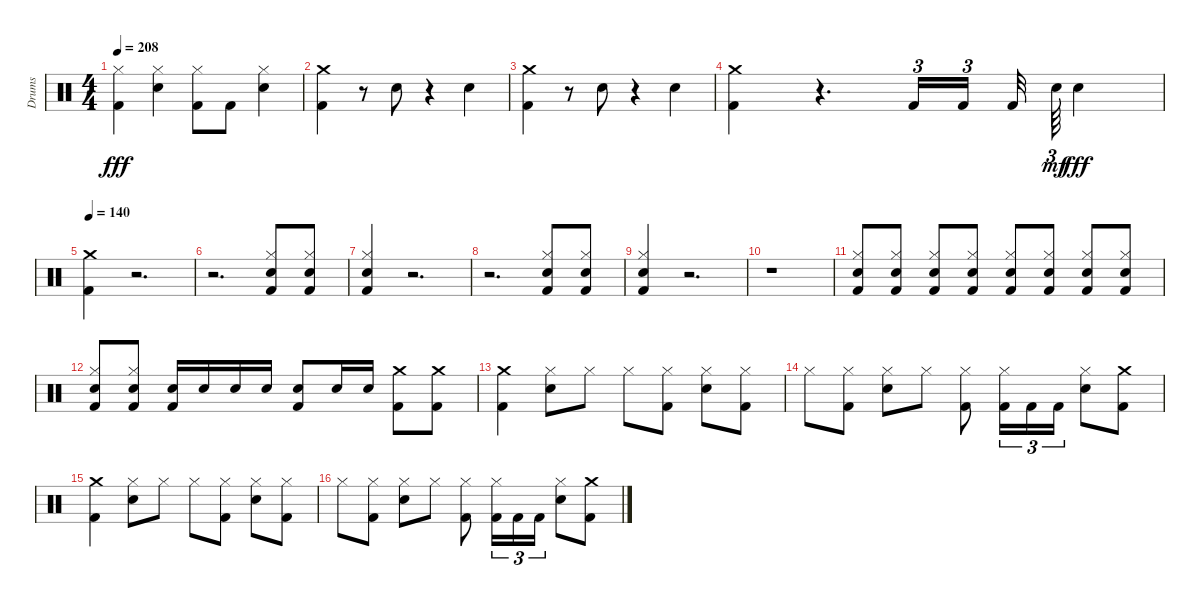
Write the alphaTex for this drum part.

\track ("Drums" "Drums") {instrument percussion}
\staff {score}
\articulation defaults
\ts (4 4)
\tempo 208
\clef neutral
\ks c
("Kick (hit) 2" "Hi-Hat (closed)").4{dy fff} ("Snare (hit) 2" "Hi-Hat (closed)").4 ("Kick (hit) 2" "Hi-Hat (closed)").8 "Kick (hit) 2".8 ("Snare (hit) 2" "Hi-Hat (closed)").4 |
("Kick (hit) 2" "Crash medium (hit)").4 r.8 "Snare (hit) 2".8 r.4 "Snare (hit) 2".4 |
("Kick (hit) 2" "Crash medium (hit)").4 r.8 "Snare (hit) 2".8 r.4 "Snare (hit) 2".4 |
("Kick (hit) 2" "Crash medium (hit)").4 r.4{d} "Kick (hit) 2".16{tu (3 2)} "Kick (hit) 2".16{tu (3 2)} "Kick (hit) 2".32 "Snare (hit) 2".64{tu (3 2) dy mf} "Snare (hit) 2".4{dy fff} |
\tempo 140
("Kick (hit) 2" "Crash medium (hit)").4 r.2{d} |
r.2{d} ("Kick (hit) 2" "Snare (hit) 2" "Hi-Hat (closed)").8 ("Hi-Hat (closed)" "Snare (hit) 2" "Kick (hit) 2").8 |
("Kick (hit) 2" "Snare (hit) 2" "Hi-Hat (closed)").4 r.2{d} |
r.2{d} ("Kick (hit) 2" "Snare (hit) 2" "Hi-Hat (closed)").8 ("Hi-Hat (closed)" "Snare (hit) 2" "Kick (hit) 2").8 |
("Kick (hit) 2" "Snare (hit) 2" "Hi-Hat (closed)").4 r.2{d} |
r.1 |
("Snare (hit) 2" "Hi-Hat (closed)" "Kick (hit) 2").8 ("Hi-Hat (closed)" "Snare (hit) 2" "Kick (hit) 2").8 ("Snare (hit) 2" "Hi-Hat (closed)" "Kick (hit) 2").8 ("Hi-Hat (closed)" "Snare (hit) 2" "Kick (hit) 2").8 ("Snare (hit) 2" "Hi-Hat (closed)" "Kick (hit) 2").8 ("Hi-Hat (closed)" "Snare (hit) 2" "Kick (hit) 2").8 ("Snare (hit) 2" "Hi-Hat (closed)" "Kick (hit) 2").8 ("Hi-Hat (closed)" "Snare (hit) 2" "Kick (hit) 2").8 |
("Snare (hit) 2" "Hi-Hat (closed)" "Kick (hit) 2").8 ("Hi-Hat (closed)" "Snare (hit) 2" "Kick (hit) 2").8 ("Kick (hit) 2" "Snare (hit) 2").16 "Snare (hit) 2".16 "Snare (hit) 2".16 "Snare (hit) 2".16 ("Kick (hit) 2" "Snare (hit) 2").8 "Snare (hit) 2".16 "Snare (hit) 2".16 ("Crash medium (hit)" "Kick (hit) 2").8 ("Crash medium (hit)" "Kick (hit) 2").8 |
("Kick (hit) 2" "Crash medium (hit)").4 ("Snare (hit) 2" "Hi-Hat (closed)").8 "Hi-Hat (closed)".8 "Hi-Hat (closed)".8 ("Kick (hit) 2" "Hi-Hat (closed)").8 ("Snare (hit) 2" "Hi-Hat (closed)").8 ("Kick (hit) 2" "Hi-Hat (closed)").8 |
"Hi-Hat (closed)".8 ("Kick (hit) 2" "Hi-Hat (closed)").8 ("Snare (hit) 2" "Hi-Hat (closed)").8 "Hi-Hat (closed)".8 ("Kick (hit) 2" "Hi-Hat (closed)").8 ("Kick (hit) 2" "Hi-Hat (closed)").16{tu (3 2)} "Kick (hit) 2".16{tu (3 2)} "Kick (hit) 2".16{tu (3 2)} ("Snare (hit) 2" "Hi-Hat (closed)").8 ("Kick (hit) 2" "Crash medium (hit)").8 |
("Kick (hit) 2" "Crash medium (hit)").4 ("Snare (hit) 2" "Hi-Hat (closed)").8 "Hi-Hat (closed)".8 "Hi-Hat (closed)".8 ("Kick (hit) 2" "Hi-Hat (closed)").8 ("Snare (hit) 2" "Hi-Hat (closed)").8 ("Kick (hit) 2" "Hi-Hat (closed)").8 |
"Hi-Hat (closed)".8 ("Kick (hit) 2" "Hi-Hat (closed)").8 ("Snare (hit) 2" "Hi-Hat (closed)").8 "Hi-Hat (closed)".8 ("Kick (hit) 2" "Hi-Hat (closed)").8 ("Kick (hit) 2" "Hi-Hat (closed)").16{tu (3 2)} "Kick (hit) 2".16{tu (3 2)} "Kick (hit) 2".16{tu (3 2)} ("Snare (hit) 2" "Hi-Hat (closed)").8 ("Kick (hit) 2" "Crash medium (hit)").8
